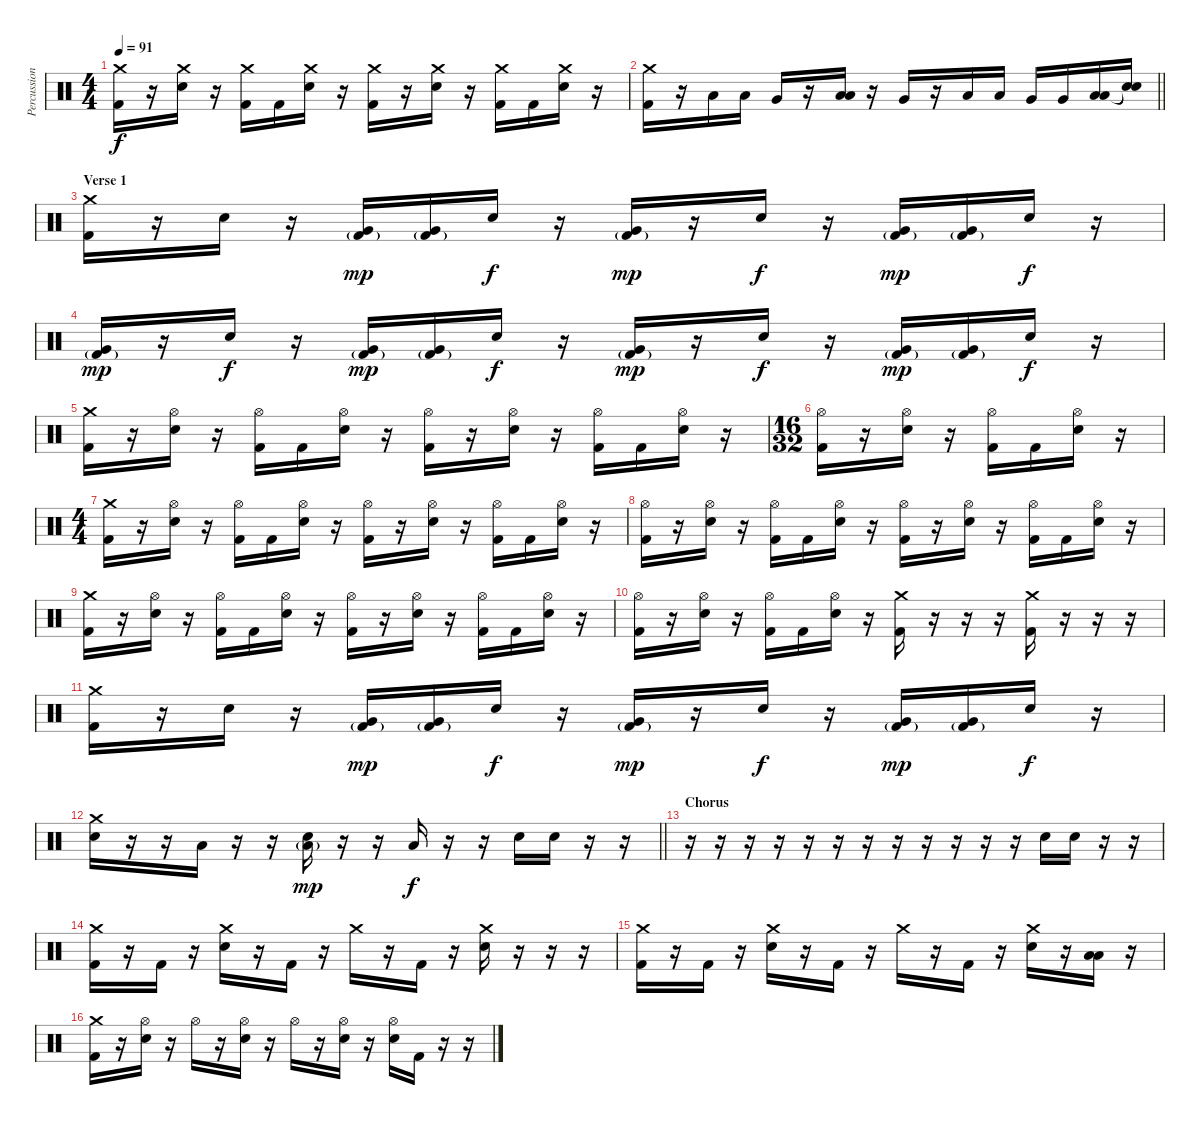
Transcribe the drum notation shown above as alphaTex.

\track ("Percussion" "Percussion") {instrument percussion}
\staff {score}
\articulation defaults
\ts (4 4)
\tempo 91
\clef neutral
\ks c
("Crash medium (hit)" "Kick (hit) 2").16{dy f} r.16 ("Crash medium (hit)" "Electric Snare (hit)").16 r.16 ("Crash medium (hit)" "Kick (hit) 2").16 "Kick (hit) 2".16 ("Crash medium (hit)" "Electric Snare (hit)").16 r.16 ("Crash medium (hit)" "Kick (hit) 2").16 r.16 ("Crash medium (hit)" "Electric Snare (hit)").16 r.16 ("Crash medium (hit)" "Kick (hit) 2").16 "Kick (hit) 2".16 ("Crash medium (hit)" "Electric Snare (hit)").16 r.16 |
\barLineRight lightlight
("Crash medium (hit)" "Kick (hit) 2").16 r.16 "Low Tom (hit)".16 "Low Tom (hit)".16 "Very Low Tom (hit)".16 r.16 ("Low Tom (hit)" "Low Tom (hit)").16 r.16 "Very Low Tom (hit)".16 r.16 "Low Tom (hit)".16 "Low Tom (hit)".16 "Very Low Tom (hit)".16 "Very Low Tom (hit)".16 ("Low Tom (hit)" "Low Tom (hit)").16 ("Snare (hit)"{t} "Snare (hit)"{t}).16 |
\section ("" "Verse 1")
("Crash medium (hit)" "Kick (hit) 2").16 r.16 "Electric Snare (hit)".16 r.16 ("Very Low Tom (hit)" "Kick (hit) 2"{g}).16{dy mp} ("Very Low Tom (hit)" "Kick (hit) 2"{g}).16 "Electric Snare (hit)".16{dy f} r.16 ("Very Low Tom (hit)" "Kick (hit) 2"{g}).16{dy mp} r.16 "Electric Snare (hit)".16{dy f} r.16 ("Very Low Tom (hit)" "Kick (hit) 2"{g}).16{dy mp} ("Very Low Tom (hit)" "Kick (hit) 2"{g}).16 "Electric Snare (hit)".16{dy f} r.16 |
("Very Low Tom (hit)" "Kick (hit) 2"{g}).16{dy mp} r.16 "Electric Snare (hit)".16{dy f} r.16 ("Very Low Tom (hit)" "Kick (hit) 2"{g}).16{dy mp} ("Very Low Tom (hit)" "Kick (hit) 2"{g}).16 "Electric Snare (hit)".16{dy f} r.16 ("Very Low Tom (hit)" "Kick (hit) 2"{g}).16{dy mp} r.16 "Electric Snare (hit)".16{dy f} r.16 ("Very Low Tom (hit)" "Kick (hit) 2"{g}).16{dy mp} ("Very Low Tom (hit)" "Kick (hit) 2"{g}).16 "Electric Snare (hit)".16{dy f} r.16 |
("Crash medium (hit)" "Kick (hit) 2").16 r.16 ("Hi-Hat (open)" "Electric Snare (hit)").16 r.16 ("Hi-Hat (open)" "Kick (hit) 2").16 "Kick (hit) 2".16 ("Hi-Hat (open)" "Electric Snare (hit)").16 r.16 ("Hi-Hat (open)" "Kick (hit) 2").16 r.16 ("Hi-Hat (open)" "Electric Snare (hit)").16 r.16 ("Hi-Hat (open)" "Kick (hit) 2").16 "Kick (hit) 2".16 ("Hi-Hat (open)" "Electric Snare (hit)").16 r.16 |
\ts (16 32)
("Hi-Hat (open)" "Kick (hit) 2").16 r.16 ("Hi-Hat (open)" "Electric Snare (hit)").16 r.16 ("Hi-Hat (open)" "Kick (hit) 2").16 "Kick (hit) 2".16 ("Hi-Hat (open)" "Electric Snare (hit)").16 r.16 |
\ts (4 4)
("Crash medium (hit)" "Kick (hit) 2").16 r.16 ("Hi-Hat (open)" "Electric Snare (hit)").16 r.16 ("Hi-Hat (open)" "Kick (hit) 2").16 "Kick (hit) 2".16 ("Hi-Hat (open)" "Electric Snare (hit)").16 r.16 ("Hi-Hat (open)" "Kick (hit) 2").16 r.16 ("Hi-Hat (open)" "Electric Snare (hit)").16 r.16 ("Hi-Hat (open)" "Kick (hit) 2").16 "Kick (hit) 2".16 ("Hi-Hat (open)" "Electric Snare (hit)").16 r.16 |
("Hi-Hat (open)" "Kick (hit) 2").16 r.16 ("Hi-Hat (open)" "Electric Snare (hit)").16 r.16 ("Hi-Hat (open)" "Kick (hit) 2").16 "Kick (hit) 2".16 ("Hi-Hat (open)" "Electric Snare (hit)").16 r.16 ("Hi-Hat (open)" "Kick (hit) 2").16 r.16 ("Hi-Hat (open)" "Electric Snare (hit)").16 r.16 ("Hi-Hat (open)" "Kick (hit) 2").16 "Kick (hit) 2".16 ("Hi-Hat (open)" "Electric Snare (hit)").16 r.16 |
("Crash medium (hit)" "Kick (hit) 2").16 r.16 ("Hi-Hat (open)" "Electric Snare (hit)").16 r.16 ("Hi-Hat (open)" "Kick (hit) 2").16 "Kick (hit) 2".16 ("Hi-Hat (open)" "Electric Snare (hit)").16 r.16 ("Hi-Hat (open)" "Kick (hit) 2").16 r.16 ("Hi-Hat (open)" "Electric Snare (hit)").16 r.16 ("Hi-Hat (open)" "Kick (hit) 2").16 "Kick (hit) 2".16 ("Hi-Hat (open)" "Electric Snare (hit)").16 r.16 |
("Hi-Hat (open)" "Kick (hit) 2").16 r.16 ("Hi-Hat (open)" "Electric Snare (hit)").16 r.16 ("Hi-Hat (open)" "Kick (hit) 2").16 "Kick (hit) 2".16 ("Hi-Hat (open)" "Electric Snare (hit)").16 r.16 ("Crash medium (hit)" "Kick (hit) 2").16 r.16 r.16 r.16 ("Crash medium (hit)" "Kick (hit) 2").16 r.16 r.16 r.16 |
("Crash medium (hit)" "Kick (hit) 2").16 r.16 "Electric Snare (hit)".16 r.16 ("Very Low Tom (hit)" "Kick (hit) 2"{g}).16{dy mp} ("Very Low Tom (hit)" "Kick (hit) 2"{g}).16 "Electric Snare (hit)".16{dy f} r.16 ("Very Low Tom (hit)" "Kick (hit) 2"{g}).16{dy mp} r.16 "Electric Snare (hit)".16{dy f} r.16 ("Very Low Tom (hit)" "Kick (hit) 2"{g}).16{dy mp} ("Very Low Tom (hit)" "Kick (hit) 2"{g}).16 "Electric Snare (hit)".16{dy f} r.16 |
\barLineRight lightlight
("Crash medium (hit)" "Electric Snare (hit)").16 r.16 r.16 "Low Tom (hit)".16 r.16 r.16 ("Low Tom (hit)"{g} "Electric Snare (hit)").16{dy mp} r.16 r.16 "Low Tom (hit)".16{dy f} r.16 r.16 "Electric Snare (hit)".16 "Electric Snare (hit)".16 r.16 r.16 |
\section ("" "Chorus")
r.16 r.16 r.16 r.16 r.16 r.16 r.16 r.16 r.16 r.16 r.16 r.16 "Electric Snare (hit)".16 "Electric Snare (hit)".16 r.16 r.16 |
("Crash medium (hit)" "Kick (hit) 2").16 r.16 "Kick (hit) 2".16 r.16 ("Crash medium (hit)" "Electric Snare (hit)").16 r.16 "Kick (hit) 2".16 r.16 "Crash medium (hit)".16 r.16 "Kick (hit) 2".16 r.16 ("Crash medium (hit)" "Electric Snare (hit)").16 r.16 r.16 r.16 |
("Crash medium (hit)" "Kick (hit) 2").16 r.16 "Kick (hit) 2".16 r.16 ("Crash medium (hit)" "Electric Snare (hit)").16 r.16 "Kick (hit) 2".16 r.16 "Crash medium (hit)".16 r.16 "Kick (hit) 2".16 r.16 ("Crash medium (hit)" "Electric Snare (hit)").16 r.16 ("Low Tom (hit)" "Low Tom (hit)").16 r.16 |
("Crash medium (hit)" "Kick (hit) 2").16 r.16 ("Hi-Hat (open)" "Electric Snare (hit)").16 r.16 "Hi-Hat (open)".16 r.16 ("Hi-Hat (open)" "Electric Snare (hit)").16 r.16 "Hi-Hat (open)".16 r.16 ("Hi-Hat (open)" "Electric Snare (hit)").16 r.16 ("Hi-Hat (open)" "Electric Snare (hit)").16 "Kick (hit) 2".16 r.16 r.16
